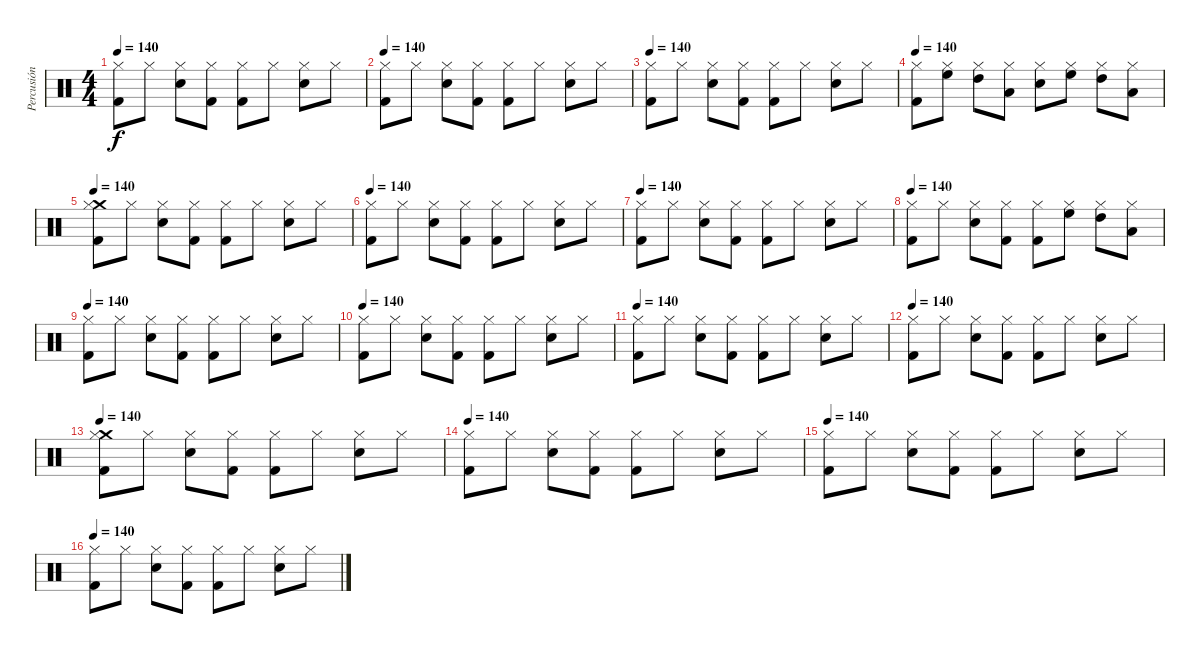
\track ("Percusión" "Percusión") {instrument percussion}
\staff {score}
\articulation defaults
\ts (4 4)
\tempo 140
\clef neutral
\ks c
("Kick (hit) 2" "Hi-Hat (closed)").8{dy f} "Hi-Hat (closed)".8 ("Snare (hit) 2" "Hi-Hat (closed)").8 ("Kick (hit) 2" "Hi-Hat (closed)").8 ("Kick (hit) 2" "Hi-Hat (closed)").8 "Hi-Hat (closed)".8 ("Snare (hit) 2" "Hi-Hat (closed)").8 "Hi-Hat (closed)".8 |
\tempo 140
("Kick (hit) 2" "Hi-Hat (closed)").8 "Hi-Hat (closed)".8 ("Snare (hit) 2" "Hi-Hat (closed)").8 ("Kick (hit) 2" "Hi-Hat (closed)").8 ("Kick (hit) 2" "Hi-Hat (closed)").8 "Hi-Hat (closed)".8 ("Snare (hit) 2" "Hi-Hat (closed)").8 "Hi-Hat (closed)".8 |
\tempo 140
("Kick (hit) 2" "Hi-Hat (closed)").8 "Hi-Hat (closed)".8 ("Snare (hit) 2" "Hi-Hat (closed)").8 ("Kick (hit) 2" "Hi-Hat (closed)").8 ("Kick (hit) 2" "Hi-Hat (closed)").8 "Hi-Hat (closed)".8 ("Snare (hit) 2" "Hi-Hat (closed)").8 "Hi-Hat (closed)".8 |
\tempo 140
("Kick (hit) 2" "Hi-Hat (closed)").8 ("High Floor Tom (hit)" "Hi-Hat (closed)").8 ("High Tom (hit)" "Hi-Hat (closed)").8 ("Low Tom (hit)" "Hi-Hat (closed)").8 ("Snare (hit) 2" "Hi-Hat (closed)").8 ("High Floor Tom (hit)" "Hi-Hat (closed)").8 ("High Tom (hit)" "Hi-Hat (closed)").8 ("Low Tom (hit)" "Hi-Hat (closed)").8 |
\tempo 140
("Kick (hit) 2" "Crash medium (hit)" "Hi-Hat (closed)").8 "Hi-Hat (closed)".8 ("Snare (hit) 2" "Hi-Hat (closed)").8 ("Kick (hit) 2" "Hi-Hat (closed)").8 ("Kick (hit) 2" "Hi-Hat (closed)").8 "Hi-Hat (closed)".8 ("Snare (hit) 2" "Hi-Hat (closed)").8 "Hi-Hat (closed)".8 |
\tempo 140
("Kick (hit) 2" "Hi-Hat (closed)").8 "Hi-Hat (closed)".8 ("Snare (hit) 2" "Hi-Hat (closed)").8 ("Kick (hit) 2" "Hi-Hat (closed)").8 ("Kick (hit) 2" "Hi-Hat (closed)").8 "Hi-Hat (closed)".8 ("Snare (hit) 2" "Hi-Hat (closed)").8 "Hi-Hat (closed)".8 |
\tempo 140
("Kick (hit) 2" "Hi-Hat (closed)").8 "Hi-Hat (closed)".8 ("Snare (hit) 2" "Hi-Hat (closed)").8 ("Kick (hit) 2" "Hi-Hat (closed)").8 ("Kick (hit) 2" "Hi-Hat (closed)").8 "Hi-Hat (closed)".8 ("Snare (hit) 2" "Hi-Hat (closed)").8 "Hi-Hat (closed)".8 |
\tempo 140
("Kick (hit) 2" "Hi-Hat (closed)").8 "Hi-Hat (closed)".8 ("Snare (hit) 2" "Hi-Hat (closed)").8 ("Kick (hit) 2" "Hi-Hat (closed)").8 ("Kick (hit) 2" "Hi-Hat (closed)").8 ("High Floor Tom (hit)" "Hi-Hat (closed)").8 ("High Tom (hit)" "Hi-Hat (closed)").8 ("Low Tom (hit)" "Hi-Hat (closed)").8 |
\tempo 140
("Kick (hit) 2" "Hi-Hat (closed)").8 "Hi-Hat (closed)".8 ("Snare (hit) 2" "Hi-Hat (closed)").8 ("Kick (hit) 2" "Hi-Hat (closed)").8 ("Kick (hit) 2" "Hi-Hat (closed)").8 "Hi-Hat (closed)".8 ("Snare (hit) 2" "Hi-Hat (closed)").8 "Hi-Hat (closed)".8 |
\tempo 140
("Kick (hit) 2" "Hi-Hat (closed)").8 "Hi-Hat (closed)".8 ("Snare (hit) 2" "Hi-Hat (closed)").8 ("Kick (hit) 2" "Hi-Hat (closed)").8 ("Kick (hit) 2" "Hi-Hat (closed)").8 "Hi-Hat (closed)".8 ("Snare (hit) 2" "Hi-Hat (closed)").8 "Hi-Hat (closed)".8 |
\tempo 140
("Kick (hit) 2" "Hi-Hat (closed)").8 "Hi-Hat (closed)".8 ("Snare (hit) 2" "Hi-Hat (closed)").8 ("Kick (hit) 2" "Hi-Hat (closed)").8 ("Kick (hit) 2" "Hi-Hat (closed)").8 "Hi-Hat (closed)".8 ("Snare (hit) 2" "Hi-Hat (closed)").8 "Hi-Hat (closed)".8 |
\tempo 140
("Kick (hit) 2" "Hi-Hat (closed)").8 "Hi-Hat (closed)".8 ("Snare (hit) 2" "Hi-Hat (closed)").8 ("Kick (hit) 2" "Hi-Hat (closed)").8 ("Kick (hit) 2" "Hi-Hat (closed)").8 "Hi-Hat (closed)".8 ("Snare (hit) 2" "Hi-Hat (closed)").8 "Hi-Hat (closed)".8 |
\tempo 140
("Kick (hit) 2" "Crash medium (hit)" "Hi-Hat (closed)").8 "Hi-Hat (closed)".8 ("Snare (hit) 2" "Hi-Hat (closed)").8 ("Kick (hit) 2" "Hi-Hat (closed)").8 ("Kick (hit) 2" "Hi-Hat (closed)").8 "Hi-Hat (closed)".8 ("Snare (hit) 2" "Hi-Hat (closed)").8 "Hi-Hat (closed)".8 |
\tempo 140
("Kick (hit) 2" "Hi-Hat (closed)").8 "Hi-Hat (closed)".8 ("Snare (hit) 2" "Hi-Hat (closed)").8 ("Kick (hit) 2" "Hi-Hat (closed)").8 ("Kick (hit) 2" "Hi-Hat (closed)").8 "Hi-Hat (closed)".8 ("Snare (hit) 2" "Hi-Hat (closed)").8 "Hi-Hat (closed)".8 |
\tempo 140
("Kick (hit) 2" "Hi-Hat (closed)").8 "Hi-Hat (closed)".8 ("Snare (hit) 2" "Hi-Hat (closed)").8 ("Kick (hit) 2" "Hi-Hat (closed)").8 ("Kick (hit) 2" "Hi-Hat (closed)").8 "Hi-Hat (closed)".8 ("Snare (hit) 2" "Hi-Hat (closed)").8 "Hi-Hat (closed)".8 |
\tempo 140
("Kick (hit) 2" "Hi-Hat (closed)").8 "Hi-Hat (closed)".8 ("Snare (hit) 2" "Hi-Hat (closed)").8 ("Kick (hit) 2" "Hi-Hat (closed)").8 ("Kick (hit) 2" "Hi-Hat (closed)").8 "Hi-Hat (closed)".8 ("Snare (hit) 2" "Hi-Hat (closed)").8 "Hi-Hat (closed)".8
